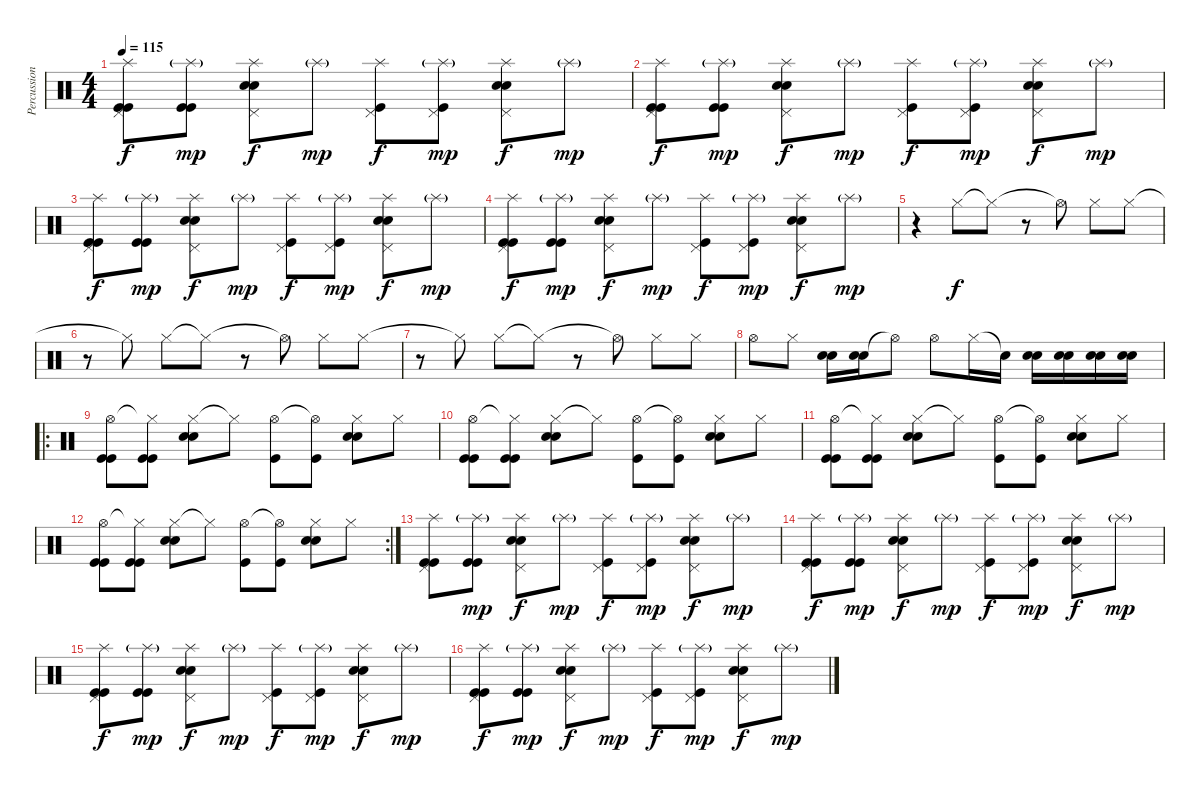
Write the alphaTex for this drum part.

\track ("Percussions" "Percussion") {instrument percussion}
\staff {score}
\articulation defaults
\ts (4 4)
\tempo 115
\clef neutral
\ks c
("Splash (hit)" "Pedal Hi-Hat (hit)" "Kick (hit)" "Kick (hit)").8{dy f} ("Splash (hit)"{g} "Kick (hit)" "Kick (hit)").8{dy mp} ("Splash (hit)" "Pedal Hi-Hat (hit)" "Snare (hit) 2" "Snare (hit) 2").8{dy f} "Splash (hit)"{g}.8{dy mp} ("Splash (hit)" "Pedal Hi-Hat (hit)" "Kick (hit)").8{dy f} ("Splash (hit)"{g} "Pedal Hi-Hat (hit)" "Kick (hit)").8{dy mp} ("Splash (hit)" "Pedal Hi-Hat (hit)" "Snare (hit) 2" "Snare (hit) 2").8{dy f} "Splash (hit)"{g}.8{dy mp} |
("Splash (hit)" "Pedal Hi-Hat (hit)" "Kick (hit)" "Kick (hit)").8{dy f} ("Splash (hit)"{g} "Kick (hit)" "Kick (hit)").8{dy mp} ("Splash (hit)" "Pedal Hi-Hat (hit)" "Snare (hit) 2" "Snare (hit) 2").8{dy f} "Splash (hit)"{g}.8{dy mp} ("Splash (hit)" "Pedal Hi-Hat (hit)" "Kick (hit)").8{dy f} ("Splash (hit)"{g} "Pedal Hi-Hat (hit)" "Kick (hit)").8{dy mp} ("Splash (hit)" "Pedal Hi-Hat (hit)" "Snare (hit) 2" "Snare (hit) 2").8{dy f} "Splash (hit)"{g}.8{dy mp} |
("Splash (hit)" "Pedal Hi-Hat (hit)" "Kick (hit)" "Kick (hit)").8{dy f} ("Splash (hit)"{g} "Kick (hit)" "Kick (hit)").8{dy mp} ("Splash (hit)" "Pedal Hi-Hat (hit)" "Snare (hit) 2" "Snare (hit) 2").8{dy f} "Splash (hit)"{g}.8{dy mp} ("Splash (hit)" "Pedal Hi-Hat (hit)" "Kick (hit)").8{dy f} ("Splash (hit)"{g} "Pedal Hi-Hat (hit)" "Kick (hit)").8{dy mp} ("Splash (hit)" "Pedal Hi-Hat (hit)" "Snare (hit) 2" "Snare (hit) 2").8{dy f} "Splash (hit)"{g}.8{dy mp} |
("Splash (hit)" "Pedal Hi-Hat (hit)" "Kick (hit)" "Kick (hit)").8{dy f} ("Splash (hit)"{g} "Kick (hit)" "Kick (hit)").8{dy mp} ("Splash (hit)" "Pedal Hi-Hat (hit)" "Snare (hit) 2" "Snare (hit) 2").8{dy f} "Splash (hit)"{g}.8{dy mp} ("Splash (hit)" "Pedal Hi-Hat (hit)" "Kick (hit)").8{dy f} ("Splash (hit)"{g} "Pedal Hi-Hat (hit)" "Kick (hit)").8{dy mp} ("Splash (hit)" "Pedal Hi-Hat (hit)" "Snare (hit) 2" "Snare (hit) 2").8{dy f} "Splash (hit)"{g}.8{dy mp} |
r.4 "Hi-Hat (closed)".8{dy f} "Hi-Hat (closed)"{t}.8 r.8 "Hi-Hat (open)"{t}.8 "Hi-Hat (closed)".8 "Hi-Hat (closed)".8 |
r.8 "Hi-Hat (closed)"{t}.8 "Hi-Hat (closed)".8 "Hi-Hat (closed)"{t}.8 r.8 "Hi-Hat (open)"{t}.8 "Hi-Hat (closed)".8 "Hi-Hat (closed)".8 |
r.8 "Hi-Hat (closed)"{t}.8 "Hi-Hat (closed)".8 "Hi-Hat (closed)"{t}.8 r.8 "Hi-Hat (open)"{t}.8 "Hi-Hat (closed)".8 "Hi-Hat (closed)".8 |
"Hi-Hat (open)".8 "Hi-Hat (closed)".8 ("Electric Snare (hit)" "Electric Snare (hit)").16 ("Electric Snare (hit)" "Electric Snare (hit)").16 "Hi-Hat (open)"{t}.8 "Hi-Hat (open)".8 "Hi-Hat (closed)".16 "Snare (hit)"{t}.16 ("Electric Snare (hit)" "Electric Snare (hit)").16 ("Electric Snare (hit)" "Electric Snare (hit)").16 ("Electric Snare (hit)" "Electric Snare (hit)").16 ("Electric Snare (hit)" "Electric Snare (hit)").16 |
\ro
("Hi-Hat (open)" "Kick (hit)" "Kick (hit)").8 ("Hi-Hat (closed)"{t} "Kick (hit)" "Kick (hit)").8 ("Hi-Hat (closed)" "Snare (hit) 2" "Snare (hit) 2").8 "Hi-Hat (closed)"{t}.8 ("Hi-Hat (open)" "Kick (hit)").8 ("Hi-Hat (open)"{t} "Kick (hit)").8 ("Hi-Hat (closed)" "Snare (hit) 2" "Snare (hit) 2").8 "Hi-Hat (closed)".8 |
("Hi-Hat (open)" "Kick (hit)" "Kick (hit)").8 ("Hi-Hat (closed)"{t} "Kick (hit)" "Kick (hit)").8 ("Hi-Hat (closed)" "Snare (hit) 2" "Snare (hit) 2").8 "Hi-Hat (closed)"{t}.8 ("Hi-Hat (open)" "Kick (hit)").8 ("Hi-Hat (open)"{t} "Kick (hit)").8 ("Hi-Hat (closed)" "Snare (hit) 2" "Snare (hit) 2").8 "Hi-Hat (closed)".8 |
("Hi-Hat (open)" "Kick (hit)" "Kick (hit)").8 ("Hi-Hat (closed)"{t} "Kick (hit)" "Kick (hit)").8 ("Hi-Hat (closed)" "Snare (hit) 2" "Snare (hit) 2").8 "Hi-Hat (closed)"{t}.8 ("Hi-Hat (open)" "Kick (hit)").8 ("Hi-Hat (open)"{t} "Kick (hit)").8 ("Hi-Hat (closed)" "Snare (hit) 2" "Snare (hit) 2").8 "Hi-Hat (closed)".8 |
\rc 2
("Hi-Hat (open)" "Kick (hit)" "Kick (hit)").8 ("Hi-Hat (closed)"{t} "Kick (hit)" "Kick (hit)").8 ("Hi-Hat (closed)" "Snare (hit) 2" "Snare (hit) 2").8 "Hi-Hat (closed)"{t}.8 ("Hi-Hat (open)" "Kick (hit)").8 ("Hi-Hat (open)"{t} "Kick (hit)").8 ("Hi-Hat (closed)" "Snare (hit) 2" "Snare (hit) 2").8 "Hi-Hat (closed)".8 |
("Splash (hit)" "Pedal Hi-Hat (hit)" "Kick (hit)" "Kick (hit)").8 ("Splash (hit)"{g} "Kick (hit)" "Kick (hit)").8{dy mp} ("Splash (hit)" "Pedal Hi-Hat (hit)" "Snare (hit) 2" "Snare (hit) 2").8{dy f} "Splash (hit)"{g}.8{dy mp} ("Splash (hit)" "Pedal Hi-Hat (hit)" "Kick (hit)").8{dy f} ("Splash (hit)"{g} "Pedal Hi-Hat (hit)" "Kick (hit)").8{dy mp} ("Splash (hit)" "Pedal Hi-Hat (hit)" "Snare (hit) 2" "Snare (hit) 2").8{dy f} "Splash (hit)"{g}.8{dy mp} |
("Splash (hit)" "Pedal Hi-Hat (hit)" "Kick (hit)" "Kick (hit)").8{dy f} ("Splash (hit)"{g} "Kick (hit)" "Kick (hit)").8{dy mp} ("Splash (hit)" "Pedal Hi-Hat (hit)" "Snare (hit) 2" "Snare (hit) 2").8{dy f} "Splash (hit)"{g}.8{dy mp} ("Splash (hit)" "Pedal Hi-Hat (hit)" "Kick (hit)").8{dy f} ("Splash (hit)"{g} "Pedal Hi-Hat (hit)" "Kick (hit)").8{dy mp} ("Splash (hit)" "Pedal Hi-Hat (hit)" "Snare (hit) 2" "Snare (hit) 2").8{dy f} "Splash (hit)"{g}.8{dy mp} |
("Splash (hit)" "Pedal Hi-Hat (hit)" "Kick (hit)" "Kick (hit)").8{dy f} ("Splash (hit)"{g} "Kick (hit)" "Kick (hit)").8{dy mp} ("Splash (hit)" "Pedal Hi-Hat (hit)" "Snare (hit) 2" "Snare (hit) 2").8{dy f} "Splash (hit)"{g}.8{dy mp} ("Splash (hit)" "Pedal Hi-Hat (hit)" "Kick (hit)").8{dy f} ("Splash (hit)"{g} "Pedal Hi-Hat (hit)" "Kick (hit)").8{dy mp} ("Splash (hit)" "Pedal Hi-Hat (hit)" "Snare (hit) 2" "Snare (hit) 2").8{dy f} "Splash (hit)"{g}.8{dy mp} |
("Splash (hit)" "Pedal Hi-Hat (hit)" "Kick (hit)" "Kick (hit)").8{dy f} ("Splash (hit)"{g} "Kick (hit)" "Kick (hit)").8{dy mp} ("Splash (hit)" "Pedal Hi-Hat (hit)" "Snare (hit) 2" "Snare (hit) 2").8{dy f} "Splash (hit)"{g}.8{dy mp} ("Splash (hit)" "Pedal Hi-Hat (hit)" "Kick (hit)").8{dy f} ("Splash (hit)"{g} "Pedal Hi-Hat (hit)" "Kick (hit)").8{dy mp} ("Splash (hit)" "Pedal Hi-Hat (hit)" "Snare (hit) 2" "Snare (hit) 2").8{dy f} "Splash (hit)"{g}.8{dy mp}
